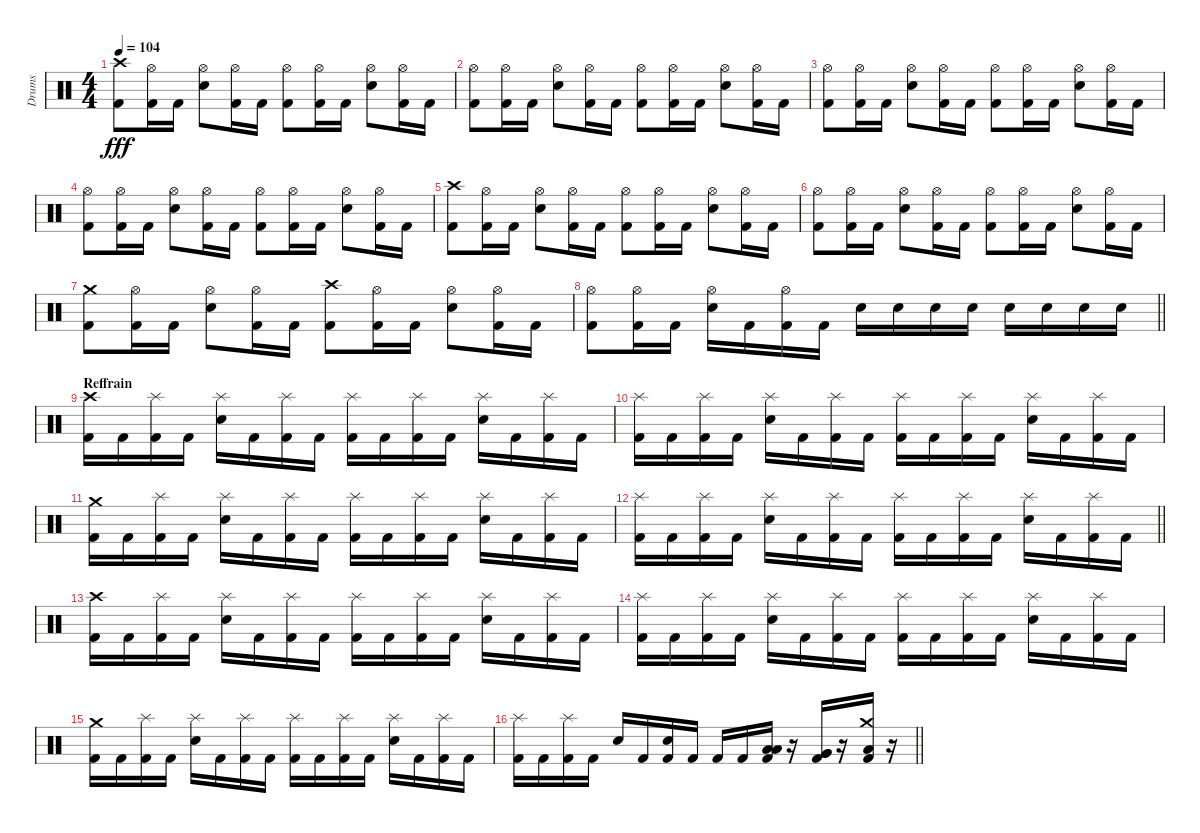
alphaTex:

\track ("Drums" "Drums") {instrument percussion}
\staff {score}
\articulation defaults
\ts (4 4)
\tempo 104
\clef neutral
\ks c
("Crash high (hit)" "Kick (hit) 2").8{dy fff} ("Hi-Hat (open)" "Kick (hit) 2").16 "Kick (hit) 2".16 ("Hi-Hat (open)" "Snare (hit) 2").8 ("Hi-Hat (open)" "Kick (hit) 2").16 "Kick (hit) 2".16 ("Hi-Hat (open)" "Kick (hit) 2").8 ("Hi-Hat (open)" "Kick (hit) 2").16 "Kick (hit) 2".16 ("Hi-Hat (open)" "Snare (hit) 2").8 ("Hi-Hat (open)" "Kick (hit) 2").16 "Kick (hit) 2".16 |
("Hi-Hat (open)" "Kick (hit) 2").8 ("Hi-Hat (open)" "Kick (hit) 2").16 "Kick (hit) 2".16 ("Hi-Hat (open)" "Snare (hit) 2").8 ("Hi-Hat (open)" "Kick (hit) 2").16 "Kick (hit) 2".16 ("Hi-Hat (open)" "Kick (hit) 2").8 ("Hi-Hat (open)" "Kick (hit) 2").16 "Kick (hit) 2".16 ("Hi-Hat (open)" "Snare (hit) 2").8 ("Hi-Hat (open)" "Kick (hit) 2").16 "Kick (hit) 2".16 |
("Hi-Hat (open)" "Kick (hit) 2").8 ("Hi-Hat (open)" "Kick (hit) 2").16 "Kick (hit) 2".16 ("Hi-Hat (open)" "Snare (hit) 2").8 ("Hi-Hat (open)" "Kick (hit) 2").16 "Kick (hit) 2".16 ("Hi-Hat (open)" "Kick (hit) 2").8 ("Hi-Hat (open)" "Kick (hit) 2").16 "Kick (hit) 2".16 ("Hi-Hat (open)" "Snare (hit) 2").8 ("Hi-Hat (open)" "Kick (hit) 2").16 "Kick (hit) 2".16 |
("Hi-Hat (open)" "Kick (hit) 2").8 ("Hi-Hat (open)" "Kick (hit) 2").16 "Kick (hit) 2".16 ("Hi-Hat (open)" "Snare (hit) 2").8 ("Hi-Hat (open)" "Kick (hit) 2").16 "Kick (hit) 2".16 ("Hi-Hat (open)" "Kick (hit) 2").8 ("Hi-Hat (open)" "Kick (hit) 2").16 "Kick (hit) 2".16 ("Hi-Hat (open)" "Snare (hit) 2").8 ("Hi-Hat (open)" "Kick (hit) 2").16 "Kick (hit) 2".16 |
("Crash high (hit)" "Kick (hit) 2").8 ("Hi-Hat (open)" "Kick (hit) 2").16 "Kick (hit) 2".16 ("Hi-Hat (open)" "Snare (hit) 2").8 ("Hi-Hat (open)" "Kick (hit) 2").16 "Kick (hit) 2".16 ("Hi-Hat (open)" "Kick (hit) 2").8 ("Hi-Hat (open)" "Kick (hit) 2").16 "Kick (hit) 2".16 ("Hi-Hat (open)" "Snare (hit) 2").8 ("Hi-Hat (open)" "Kick (hit) 2").16 "Kick (hit) 2".16 |
("Hi-Hat (open)" "Kick (hit) 2").8 ("Hi-Hat (open)" "Kick (hit) 2").16 "Kick (hit) 2".16 ("Hi-Hat (open)" "Snare (hit) 2").8 ("Hi-Hat (open)" "Kick (hit) 2").16 "Kick (hit) 2".16 ("Hi-Hat (open)" "Kick (hit) 2").8 ("Hi-Hat (open)" "Kick (hit) 2").16 "Kick (hit) 2".16 ("Hi-Hat (open)" "Snare (hit) 2").8 ("Hi-Hat (open)" "Kick (hit) 2").16 "Kick (hit) 2".16 |
("Crash medium (hit)" "Kick (hit) 2").8 ("Hi-Hat (open)" "Kick (hit) 2").16 "Kick (hit) 2".16 ("Hi-Hat (open)" "Snare (hit) 2").8 ("Hi-Hat (open)" "Kick (hit) 2").16 "Kick (hit) 2".16 ("Crash high (hit)" "Kick (hit) 2").8 ("Hi-Hat (open)" "Kick (hit) 2").16 "Kick (hit) 2".16 ("Hi-Hat (open)" "Snare (hit) 2").8 ("Hi-Hat (open)" "Kick (hit) 2").16 "Kick (hit) 2".16 |
\barLineRight lightlight
("Hi-Hat (open)" "Kick (hit) 2").8 ("Hi-Hat (open)" "Kick (hit) 2").16 "Kick (hit) 2".16 ("Hi-Hat (open)" "Snare (hit) 2").16 "Kick (hit) 2".16 ("Hi-Hat (open)" "Kick (hit) 2").16 "Kick (hit) 2".16 "Snare (hit) 2".16 "Snare (hit) 2".16 "Snare (hit) 2".16 "Snare (hit) 2".16 "Snare (hit) 2".16 "Snare (hit) 2".16 "Snare (hit) 2".16 "Snare (hit) 2".16 |
\section ("" "Reffrain")
("Crash high (hit)" "Kick (hit) 2").16 "Kick (hit) 2".16 ("Splash (hit)" "Kick (hit) 2").16 "Kick (hit) 2".16 ("Splash (hit)" "Snare (hit) 2").16 "Kick (hit) 2".16 ("Splash (hit)" "Kick (hit) 2").16 "Kick (hit) 2".16 ("Splash (hit)" "Kick (hit) 2").16 "Kick (hit) 2".16 ("Splash (hit)" "Kick (hit) 2").16 "Kick (hit) 2".16 ("Splash (hit)" "Snare (hit) 2").16 "Kick (hit) 2".16 ("Splash (hit)" "Kick (hit) 2").16 "Kick (hit) 2".16 |
("Splash (hit)" "Kick (hit) 2").16 "Kick (hit) 2".16 ("Splash (hit)" "Kick (hit) 2").16 "Kick (hit) 2".16 ("Splash (hit)" "Snare (hit) 2").16 "Kick (hit) 2".16 ("Splash (hit)" "Kick (hit) 2").16 "Kick (hit) 2".16 ("Splash (hit)" "Kick (hit) 2").16 "Kick (hit) 2".16 ("Splash (hit)" "Kick (hit) 2").16 "Kick (hit) 2".16 ("Splash (hit)" "Snare (hit) 2").16 "Kick (hit) 2".16 ("Splash (hit)" "Kick (hit) 2").16 "Kick (hit) 2".16 |
("Crash medium (hit)" "Kick (hit) 2").16 "Kick (hit) 2".16 ("Splash (hit)" "Kick (hit) 2").16 "Kick (hit) 2".16 ("Splash (hit)" "Snare (hit) 2").16 "Kick (hit) 2".16 ("Splash (hit)" "Kick (hit) 2").16 "Kick (hit) 2".16 ("Splash (hit)" "Kick (hit) 2").16 "Kick (hit) 2".16 ("Splash (hit)" "Kick (hit) 2").16 "Kick (hit) 2".16 ("Splash (hit)" "Snare (hit) 2").16 "Kick (hit) 2".16 ("Splash (hit)" "Kick (hit) 2").16 "Kick (hit) 2".16 |
\barLineRight lightlight
("Splash (hit)" "Kick (hit) 2").16 "Kick (hit) 2".16 ("Splash (hit)" "Kick (hit) 2").16 "Kick (hit) 2".16 ("Splash (hit)" "Snare (hit) 2").16 "Kick (hit) 2".16 ("Splash (hit)" "Kick (hit) 2").16 "Kick (hit) 2".16 ("Splash (hit)" "Kick (hit) 2").16 "Kick (hit) 2".16 ("Splash (hit)" "Kick (hit) 2").16 "Kick (hit) 2".16 ("Splash (hit)" "Snare (hit) 2").16 "Kick (hit) 2".16 ("Splash (hit)" "Kick (hit) 2").16 "Kick (hit) 2".16 |
("Crash high (hit)" "Kick (hit) 2").16 "Kick (hit) 2".16 ("Splash (hit)" "Kick (hit) 2").16 "Kick (hit) 2".16 ("Splash (hit)" "Snare (hit) 2").16 "Kick (hit) 2".16 ("Splash (hit)" "Kick (hit) 2").16 "Kick (hit) 2".16 ("Splash (hit)" "Kick (hit) 2").16 "Kick (hit) 2".16 ("Splash (hit)" "Kick (hit) 2").16 "Kick (hit) 2".16 ("Splash (hit)" "Snare (hit) 2").16 "Kick (hit) 2".16 ("Splash (hit)" "Kick (hit) 2").16 "Kick (hit) 2".16 |
("Splash (hit)" "Kick (hit) 2").16 "Kick (hit) 2".16 ("Splash (hit)" "Kick (hit) 2").16 "Kick (hit) 2".16 ("Splash (hit)" "Snare (hit) 2").16 "Kick (hit) 2".16 ("Splash (hit)" "Kick (hit) 2").16 "Kick (hit) 2".16 ("Splash (hit)" "Kick (hit) 2").16 "Kick (hit) 2".16 ("Splash (hit)" "Kick (hit) 2").16 "Kick (hit) 2".16 ("Splash (hit)" "Snare (hit) 2").16 "Kick (hit) 2".16 ("Splash (hit)" "Kick (hit) 2").16 "Kick (hit) 2".16 |
("Crash medium (hit)" "Kick (hit) 2").16 "Kick (hit) 2".16 ("Splash (hit)" "Kick (hit) 2").16 "Kick (hit) 2".16 ("Splash (hit)" "Snare (hit) 2").16 "Kick (hit) 2".16 ("Splash (hit)" "Kick (hit) 2").16 "Kick (hit) 2".16 ("Splash (hit)" "Kick (hit) 2").16 "Kick (hit) 2".16 ("Splash (hit)" "Kick (hit) 2").16 "Kick (hit) 2".16 ("Splash (hit)" "Snare (hit) 2").16 "Kick (hit) 2".16 ("Splash (hit)" "Kick (hit) 2").16 "Kick (hit) 2".16 |
\barLineRight lightlight
("Splash (hit)" "Kick (hit) 2").16 "Kick (hit) 2".16 ("Splash (hit)" "Kick (hit) 2").16 "Kick (hit) 2".16 "Snare (hit) 2".16 "Kick (hit) 2".16 ("Snare (hit) 2" "Kick (hit) 2").16 "Kick (hit) 2".16 "Kick (hit) 2".16 "Kick (hit) 2".16 ("Low Tom (hit)" "Low Tom (hit)" "Kick (hit) 2").16 r.16 ("Very Low Tom (hit)" "Very Low Tom (hit)" "Kick (hit) 2").16 r.16 ("Crash medium (hit)" "Low Floor Tom (hit)" "Kick (hit) 2").16 r.16
